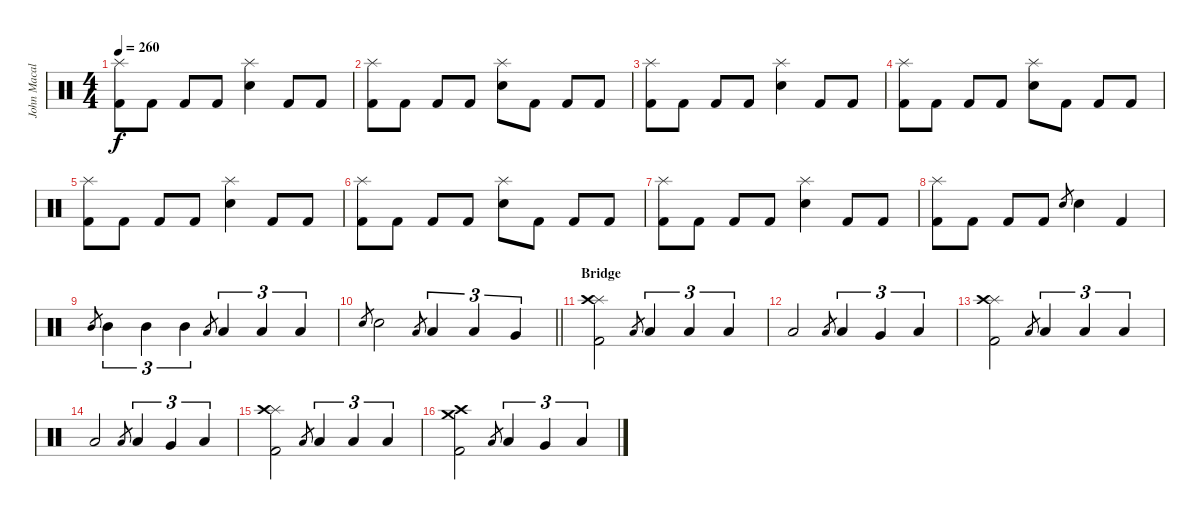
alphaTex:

\track ("John Macaluso" "John Macal") {instrument percussion}
\staff {score}
\articulation defaults
\ts (4 4)
\tempo 260
\clef neutral
\ks c
("Splash (hit)" "Kick (hit) 2").8{dy f} "Kick (hit) 2".8 "Kick (hit) 2".8 "Kick (hit) 2".8 ("Splash (hit)" "Snare (hit) 2").4 "Kick (hit) 2".8 "Kick (hit) 2".8 |
("Splash (hit)" "Kick (hit) 2").8 "Kick (hit) 2".8 "Kick (hit) 2".8 "Kick (hit) 2".8 ("Splash (hit)" "Snare (hit) 2").8 "Kick (hit) 2".8 "Kick (hit) 2".8 "Kick (hit) 2".8 |
("Splash (hit)" "Kick (hit) 2").8 "Kick (hit) 2".8 "Kick (hit) 2".8 "Kick (hit) 2".8 ("Splash (hit)" "Snare (hit) 2").4 "Kick (hit) 2".8 "Kick (hit) 2".8 |
("Splash (hit)" "Kick (hit) 2").8 "Kick (hit) 2".8 "Kick (hit) 2".8 "Kick (hit) 2".8 ("Splash (hit)" "Snare (hit) 2").8 "Kick (hit) 2".8 "Kick (hit) 2".8 "Kick (hit) 2".8 |
("Splash (hit)" "Kick (hit) 2").8 "Kick (hit) 2".8 "Kick (hit) 2".8 "Kick (hit) 2".8 ("Splash (hit)" "Snare (hit) 2").4 "Kick (hit) 2".8 "Kick (hit) 2".8 |
("Splash (hit)" "Kick (hit) 2").8 "Kick (hit) 2".8 "Kick (hit) 2".8 "Kick (hit) 2".8 ("Splash (hit)" "Snare (hit) 2").8 "Kick (hit) 2".8 "Kick (hit) 2".8 "Kick (hit) 2".8 |
("Splash (hit)" "Kick (hit) 2").8 "Kick (hit) 2".8 "Kick (hit) 2".8 "Kick (hit) 2".8 ("Splash (hit)" "Snare (hit) 2").4 "Kick (hit) 2".8 "Kick (hit) 2".8 |
("Splash (hit)" "Kick (hit) 2").8 "Kick (hit) 2".8 "Kick (hit) 2".8 "Kick (hit) 2".8 "Snare (hit) 2".8{gr} "Snare (hit) 2".4 "Kick (hit) 2".4 |
"Mid Tom (hit)".8{gr} "Mid Tom (hit)".4{tu (3 2)} "Mid Tom (hit)".4{tu (3 2)} "Mid Tom (hit)".4{tu (3 2)} "Low Tom (hit)".8{gr} "Low Tom (hit)".4{tu (3 2)} "Low Tom (hit)".4{tu (3 2)} "Low Tom (hit)".4{tu (3 2)} |
\barLineRight lightlight "Snare (hit) 2".8{gr} "Snare (hit) 2".2 "Low Tom (hit)".8{gr} "Low Tom (hit)".4{tu (3 2)} "Low Tom (hit)".4{tu (3 2)} "Very Low Tom (hit)".4{tu (3 2)}
|
\section ("" "Bridge")
("Splash (hit)" "Crash high (hit)" "Kick (hit) 2").2 "Low Tom (hit)".8{gr} "Low Tom (hit)".4{tu (3 2)} "Low Tom (hit)".4{tu (3 2)} "Low Tom (hit)".4{tu (3 2)} |
"Low Tom (hit)".2 "Low Tom (hit)".8{gr} "Low Tom (hit)".4{tu (3 2)} "Very Low Tom (hit)".4{tu (3 2)} "Low Floor Tom (hit)".4{tu (3 2)} |
("Splash (hit)" "Crash high (hit)" "Kick (hit) 2").2 "Low Tom (hit)".8{gr} "Low Tom (hit)".4{tu (3 2)} "Low Tom (hit)".4{tu (3 2)} "Low Tom (hit)".4{tu (3 2)} |
"Low Tom (hit)".2 "Low Tom (hit)".8{gr} "Low Tom (hit)".4{tu (3 2)} "Very Low Tom (hit)".4{tu (3 2)} "Low Floor Tom (hit)".4{tu (3 2)} |
("Splash (hit)" "Crash high (hit)" "Kick (hit) 2").2 "Low Tom (hit)".8{gr} "Low Tom (hit)".4{tu (3 2)} "Low Tom (hit)".4{tu (3 2)} "Low Tom (hit)".4{tu (3 2)} |
("Crash medium (hit)" "Crash high (hit)" "Kick (hit) 2").2 "Low Tom (hit)".8{gr} "Low Tom (hit)".4{tu (3 2)} "Very Low Tom (hit)".4{tu (3 2)} "Low Floor Tom (hit)".4{tu (3 2)}
